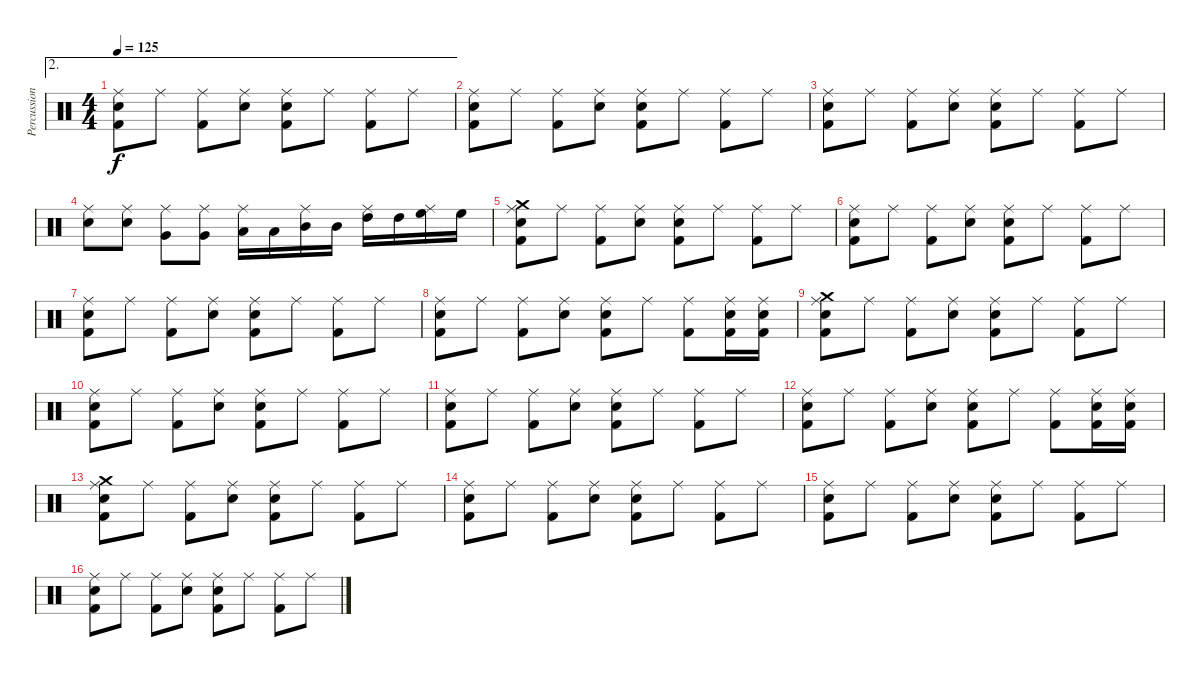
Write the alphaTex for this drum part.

\track ("Percussions" "Percussion") {instrument percussion}
\staff {score}
\articulation defaults
\ae 2
\ts (4 4)
\tempo 125
\clef neutral
\ks c
("Snare (hit) 2" "Kick (hit) 2" "Ride (middle)").8{dy f} "Ride (middle)".8 ("Kick (hit) 2" "Ride (middle)").8 ("Snare (hit) 2" "Ride (middle)").8 ("Snare (hit) 2" "Kick (hit) 2" "Ride (middle)").8 "Ride (middle)".8 ("Kick (hit) 2" "Ride (middle)").8 "Ride (middle)".8 |
("Snare (hit) 2" "Kick (hit) 2" "Ride (middle)").8 "Ride (middle)".8 ("Kick (hit) 2" "Ride (middle)").8 ("Snare (hit) 2" "Ride (middle)").8 ("Snare (hit) 2" "Kick (hit) 2" "Ride (middle)").8 "Ride (middle)".8 ("Kick (hit) 2" "Ride (middle)").8 "Ride (middle)".8 |
("Snare (hit) 2" "Kick (hit) 2" "Ride (middle)").8 "Ride (middle)".8 ("Kick (hit) 2" "Ride (middle)").8 ("Snare (hit) 2" "Ride (middle)").8 ("Snare (hit) 2" "Kick (hit) 2" "Ride (middle)").8 "Ride (middle)".8 ("Kick (hit) 2" "Ride (middle)").8 "Ride (middle)".8 |
("Electric Snare (hit)" "Ride (middle)").8 ("Electric Snare (hit)" "Ride (middle)").8 ("Very Low Tom (hit)" "Ride (middle)").8 ("Very Low Tom (hit)" "Ride (middle)").8 ("Low Tom (hit)" "Ride (middle)").16 "Low Tom (hit)".16 ("Mid Tom (hit)" "Ride (middle)").16 "Mid Tom (hit)".16 ("High Tom (hit)" "Ride (middle)").16 "High Tom (hit)".16 ("High Floor Tom (hit)" "Ride (middle)").16 "High Floor Tom (hit)".16 |
("Crash medium (hit)" "Snare (hit) 2" "Kick (hit) 2" "Ride (middle)").8 "Ride (middle)".8 ("Kick (hit) 2" "Ride (middle)").8 ("Snare (hit) 2" "Ride (middle)").8 ("Snare (hit) 2" "Kick (hit) 2" "Ride (middle)").8 "Ride (middle)".8 ("Kick (hit) 2" "Ride (middle)").8 "Ride (middle)".8 |
("Snare (hit) 2" "Kick (hit) 2" "Ride (middle)").8 "Ride (middle)".8 ("Kick (hit) 2" "Ride (middle)").8 ("Snare (hit) 2" "Ride (middle)").8 ("Snare (hit) 2" "Kick (hit) 2" "Ride (middle)").8 "Ride (middle)".8 ("Kick (hit) 2" "Ride (middle)").8 "Ride (middle)".8 |
("Snare (hit) 2" "Kick (hit) 2" "Ride (middle)").8 "Ride (middle)".8 ("Kick (hit) 2" "Ride (middle)").8 ("Snare (hit) 2" "Ride (middle)").8 ("Snare (hit) 2" "Kick (hit) 2" "Ride (middle)").8 "Ride (middle)".8 ("Kick (hit) 2" "Ride (middle)").8 "Ride (middle)".8 |
("Snare (hit) 2" "Kick (hit) 2" "Ride (middle)").8 "Ride (middle)".8 ("Kick (hit) 2" "Ride (middle)").8 ("Snare (hit) 2" "Ride (middle)").8 ("Snare (hit) 2" "Kick (hit) 2" "Ride (middle)").8 "Ride (middle)".8 ("Kick (hit) 2" "Ride (middle)").8 ("Snare (hit) 2" "Kick (hit) 2" "Ride (middle)").16 ("Snare (hit) 2" "Kick (hit) 2" "Ride (middle)").16 |
("Crash medium (hit)" "Snare (hit) 2" "Kick (hit) 2" "Ride (middle)").8 "Ride (middle)".8 ("Kick (hit) 2" "Ride (middle)").8 ("Snare (hit) 2" "Ride (middle)").8 ("Snare (hit) 2" "Kick (hit) 2" "Ride (middle)").8 "Ride (middle)".8 ("Kick (hit) 2" "Ride (middle)").8 "Ride (middle)".8 |
("Snare (hit) 2" "Kick (hit) 2" "Ride (middle)").8 "Ride (middle)".8 ("Kick (hit) 2" "Ride (middle)").8 ("Snare (hit) 2" "Ride (middle)").8 ("Snare (hit) 2" "Kick (hit) 2" "Ride (middle)").8 "Ride (middle)".8 ("Kick (hit) 2" "Ride (middle)").8 "Ride (middle)".8 |
("Snare (hit) 2" "Kick (hit) 2" "Ride (middle)").8 "Ride (middle)".8 ("Kick (hit) 2" "Ride (middle)").8 ("Snare (hit) 2" "Ride (middle)").8 ("Snare (hit) 2" "Kick (hit) 2" "Ride (middle)").8 "Ride (middle)".8 ("Kick (hit) 2" "Ride (middle)").8 "Ride (middle)".8 |
("Snare (hit) 2" "Kick (hit) 2" "Ride (middle)").8 "Ride (middle)".8 ("Kick (hit) 2" "Ride (middle)").8 ("Snare (hit) 2" "Ride (middle)").8 ("Snare (hit) 2" "Kick (hit) 2" "Ride (middle)").8 "Ride (middle)".8 ("Kick (hit) 2" "Ride (middle)").8 ("Snare (hit) 2" "Kick (hit) 2" "Ride (middle)").16 ("Snare (hit) 2" "Kick (hit) 2" "Ride (middle)").16 |
("Crash medium (hit)" "Snare (hit) 2" "Kick (hit) 2" "Ride (middle)").8 "Ride (middle)".8 ("Kick (hit) 2" "Ride (middle)").8 ("Snare (hit) 2" "Ride (middle)").8 ("Snare (hit) 2" "Kick (hit) 2" "Ride (middle)").8 "Ride (middle)".8 ("Kick (hit) 2" "Ride (middle)").8 "Ride (middle)".8 |
("Snare (hit) 2" "Kick (hit) 2" "Ride (middle)").8 "Ride (middle)".8 ("Kick (hit) 2" "Ride (middle)").8 ("Snare (hit) 2" "Ride (middle)").8 ("Snare (hit) 2" "Kick (hit) 2" "Ride (middle)").8 "Ride (middle)".8 ("Kick (hit) 2" "Ride (middle)").8 "Ride (middle)".8 |
("Snare (hit) 2" "Kick (hit) 2" "Ride (middle)").8 "Ride (middle)".8 ("Kick (hit) 2" "Ride (middle)").8 ("Snare (hit) 2" "Ride (middle)").8 ("Snare (hit) 2" "Kick (hit) 2" "Ride (middle)").8 "Ride (middle)".8 ("Kick (hit) 2" "Ride (middle)").8 "Ride (middle)".8 |
("Snare (hit) 2" "Kick (hit) 2" "Ride (middle)").8 "Ride (middle)".8 ("Kick (hit) 2" "Ride (middle)").8 ("Snare (hit) 2" "Ride (middle)").8 ("Snare (hit) 2" "Kick (hit) 2" "Ride (middle)").8 "Ride (middle)".8 ("Kick (hit) 2" "Ride (middle)").8 "Ride (middle)".8
